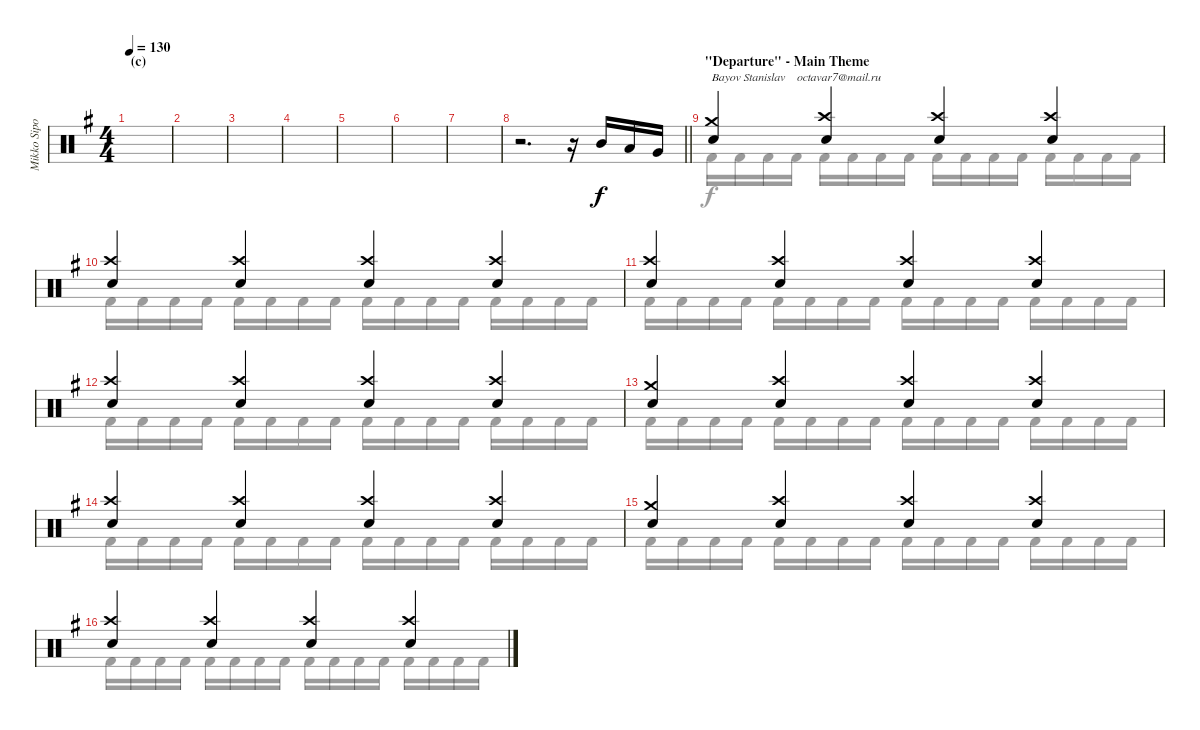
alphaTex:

\track ("Mikko Sipola (drums)" "Mikko Sipo") {instrument percussion}
\staff {score}
\articulation defaults
\voice
\ts (4 4)
\section ("" "(c)")
\tempo 130
\clef neutral
\ks eminor
|
|
|
|
|
|
|
\barLineRight lightlight
r.2{d} r.16 "Mid Tom (hit)".16 "Low Tom (hit)".16 "Very Low Tom (hit)".16 |
\section ("" "\"Departure\" - Main Theme")
("Crash medium (hit)" "Electric Snare (hit)").4{txt "Bayov Stanislav    octavar7@mail.ru"} ("Crash high (hit)" "Electric Snare (hit)").4 ("Crash high (hit)" "Electric Snare (hit)").4 ("Crash high (hit)" "Electric Snare (hit)").4 |
("Crash high (hit)" "Electric Snare (hit)").4 ("Crash high (hit)" "Electric Snare (hit)").4 ("Crash high (hit)" "Electric Snare (hit)").4 ("Crash high (hit)" "Electric Snare (hit)").4 |
("Crash high (hit)" "Electric Snare (hit)").4 ("Crash high (hit)" "Electric Snare (hit)").4 ("Crash high (hit)" "Electric Snare (hit)").4 ("Crash high (hit)" "Electric Snare (hit)").4 |
("Crash high (hit)" "Electric Snare (hit)").4 ("Crash high (hit)" "Electric Snare (hit)").4 ("Crash high (hit)" "Electric Snare (hit)").4 ("Crash high (hit)" "Electric Snare (hit)").4 |
("Crash medium (hit)" "Electric Snare (hit)").4 ("Crash high (hit)" "Electric Snare (hit)").4 ("Crash high (hit)" "Electric Snare (hit)").4 ("Crash high (hit)" "Electric Snare (hit)").4 |
("Crash high (hit)" "Electric Snare (hit)").4 ("Crash high (hit)" "Electric Snare (hit)").4 ("Crash high (hit)" "Electric Snare (hit)").4 ("Crash high (hit)" "Electric Snare (hit)").4 |
("Crash medium (hit)" "Electric Snare (hit)").4 ("Crash high (hit)" "Electric Snare (hit)").4 ("Crash high (hit)" "Electric Snare (hit)").4 ("Crash high (hit)" "Electric Snare (hit)").4 |
("Crash high (hit)" "Electric Snare (hit)").4 ("Crash high (hit)" "Electric Snare (hit)").4 ("Crash high (hit)" "Electric Snare (hit)").4 ("Crash high (hit)" "Electric Snare (hit)").4
\voice
\clef neutral
\ottava regular
\simile none
\ks eminor
|
|
|
|
|
|
|
\barLineRight lightlight
|
"Kick (hit) 2".16 "Kick (hit) 2".16 "Kick (hit) 2".16 "Kick (hit) 2".16 "Kick (hit) 2".16 "Kick (hit) 2".16 "Kick (hit) 2".16 "Kick (hit) 2".16 "Kick (hit) 2".16 "Kick (hit) 2".16 "Kick (hit) 2".16 "Kick (hit) 2".16 "Kick (hit) 2".16 "Kick (hit) 2".16 "Kick (hit) 2".16 "Kick (hit) 2".16 |
"Kick (hit) 2".16 "Kick (hit) 2".16 "Kick (hit) 2".16 "Kick (hit) 2".16 "Kick (hit) 2".16 "Kick (hit) 2".16 "Kick (hit) 2".16 "Kick (hit) 2".16 "Kick (hit) 2".16 "Kick (hit) 2".16 "Kick (hit) 2".16 "Kick (hit) 2".16 "Kick (hit) 2".16 "Kick (hit) 2".16 "Kick (hit) 2".16 "Kick (hit) 2".16 |
"Kick (hit) 2".16 "Kick (hit) 2".16 "Kick (hit) 2".16 "Kick (hit) 2".16 "Kick (hit) 2".16 "Kick (hit) 2".16 "Kick (hit) 2".16 "Kick (hit) 2".16 "Kick (hit) 2".16 "Kick (hit) 2".16 "Kick (hit) 2".16 "Kick (hit) 2".16 "Kick (hit) 2".16 "Kick (hit) 2".16 "Kick (hit) 2".16 "Kick (hit) 2".16 |
"Kick (hit) 2".16 "Kick (hit) 2".16 "Kick (hit) 2".16 "Kick (hit) 2".16 "Kick (hit) 2".16 "Kick (hit) 2".16 "Kick (hit) 2".16 "Kick (hit) 2".16 "Kick (hit) 2".16 "Kick (hit) 2".16 "Kick (hit) 2".16 "Kick (hit) 2".16 "Kick (hit) 2".16 "Kick (hit) 2".16 "Kick (hit) 2".16 "Kick (hit) 2".16 |
"Kick (hit) 2".16 "Kick (hit) 2".16 "Kick (hit) 2".16 "Kick (hit) 2".16 "Kick (hit) 2".16 "Kick (hit) 2".16 "Kick (hit) 2".16 "Kick (hit) 2".16 "Kick (hit) 2".16 "Kick (hit) 2".16 "Kick (hit) 2".16 "Kick (hit) 2".16 "Kick (hit) 2".16 "Kick (hit) 2".16 "Kick (hit) 2".16 "Kick (hit) 2".16 |
"Kick (hit) 2".16 "Kick (hit) 2".16 "Kick (hit) 2".16 "Kick (hit) 2".16 "Kick (hit) 2".16 "Kick (hit) 2".16 "Kick (hit) 2".16 "Kick (hit) 2".16 "Kick (hit) 2".16 "Kick (hit) 2".16 "Kick (hit) 2".16 "Kick (hit) 2".16 "Kick (hit) 2".16 "Kick (hit) 2".16 "Kick (hit) 2".16 "Kick (hit) 2".16 |
"Kick (hit) 2".16 "Kick (hit) 2".16 "Kick (hit) 2".16 "Kick (hit) 2".16 "Kick (hit) 2".16 "Kick (hit) 2".16 "Kick (hit) 2".16 "Kick (hit) 2".16 "Kick (hit) 2".16 "Kick (hit) 2".16 "Kick (hit) 2".16 "Kick (hit) 2".16 "Kick (hit) 2".16 "Kick (hit) 2".16 "Kick (hit) 2".16 "Kick (hit) 2".16 |
"Kick (hit) 2".16 "Kick (hit) 2".16 "Kick (hit) 2".16 "Kick (hit) 2".16 "Kick (hit) 2".16 "Kick (hit) 2".16 "Kick (hit) 2".16 "Kick (hit) 2".16 "Kick (hit) 2".16 "Kick (hit) 2".16 "Kick (hit) 2".16 "Kick (hit) 2".16 "Kick (hit) 2".16 "Kick (hit) 2".16 "Kick (hit) 2".16 "Kick (hit) 2".16
